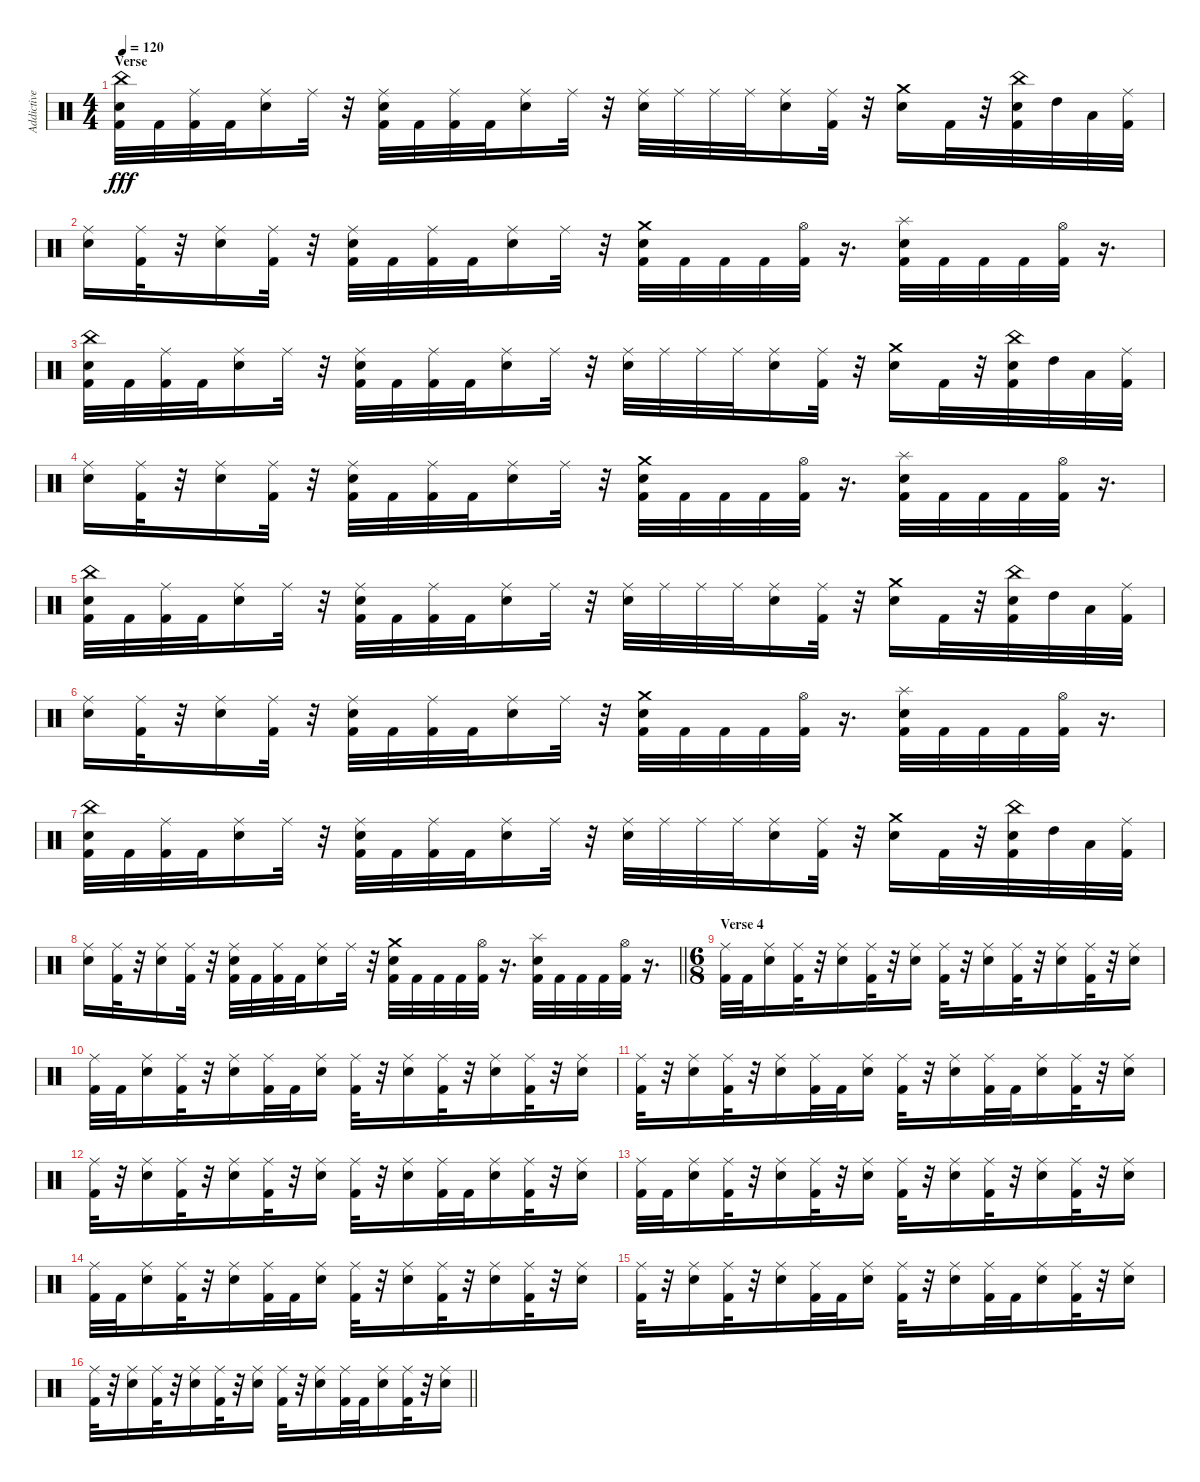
\track ("Addictive Drums 07" "Addictive ") {instrument percussion}
\staff {score}
\articulation defaults
\ts (4 4)
\section ("" "Verse")
\tempo 120
\clef neutral
\ks c
("Kick (hit) 2" "Snare (hit) 2" "China (hit)").32{dy fff} "Kick (hit) 2".32 ("Kick (hit) 2" "Ride (middle)").32 "Kick (hit) 2".32 ("Snare (hit) 2" "Ride (middle)").16 "Ride (middle)".32 r.32 ("Kick (hit) 2" "Snare (hit) 2" "Ride (middle)").32 "Kick (hit) 2".32 ("Kick (hit) 2" "Ride (middle)").32 "Kick (hit) 2".32 ("Snare (hit) 2" "Ride (middle)").16 "Ride (middle)".32 r.32 ("Snare (hit) 2" "Ride (middle)").32 "Ride (middle)".32 "Ride (middle)".32 "Ride (middle)".32 ("Snare (hit) 2" "Ride (middle)").16 ("Kick (hit) 2" "Ride (middle)").32 r.32 ("Snare (hit) 2" "Crash medium (hit)").16 "Kick (hit) 2".32 r.32 ("Kick (hit) 2" "Snare (hit) 2" "China (hit)").32 "High Tom (hit)".32 "Low Tom (hit)".32 ("Kick (hit) 2" "Ride (middle)").32 |
("Snare (hit) 2" "Ride (middle)").16 ("Kick (hit) 2" "Ride (middle)").32 r.32 ("Snare (hit) 2" "Ride (middle)").16 ("Kick (hit) 2" "Ride (middle)").32 r.32 ("Kick (hit) 2" "Snare (hit) 2" "Ride (middle)").32 "Kick (hit) 2".32 ("Kick (hit) 2" "Ride (middle)").32 "Kick (hit) 2".32 ("Snare (hit) 2" "Ride (middle)").16 "Ride (middle)".32 r.32 ("Kick (hit) 2" "Snare (hit) 2" "Crash medium (hit)").32 "Kick (hit) 2".32 "Kick (hit) 2".32 "Kick (hit) 2".32 ("Kick (hit) 2" "Hi-Hat (open)").32 r.16{d} ("Kick (hit) 2" "Snare (hit) 2" "Splash (hit)").32 "Kick (hit) 2".32 "Kick (hit) 2".32 "Kick (hit) 2".32 ("Kick (hit) 2" "Hi-Hat (open)").32 r.16{d} |
("Kick (hit) 2" "Snare (hit) 2" "China (hit)").32 "Kick (hit) 2".32 ("Kick (hit) 2" "Ride (middle)").32 "Kick (hit) 2".32 ("Snare (hit) 2" "Ride (middle)").16 "Ride (middle)".32 r.32 ("Kick (hit) 2" "Snare (hit) 2" "Ride (middle)").32 "Kick (hit) 2".32 ("Kick (hit) 2" "Ride (middle)").32 "Kick (hit) 2".32 ("Snare (hit) 2" "Ride (middle)").16 "Ride (middle)".32 r.32 ("Snare (hit) 2" "Ride (middle)").32 "Ride (middle)".32 "Ride (middle)".32 "Ride (middle)".32 ("Snare (hit) 2" "Ride (middle)").16 ("Kick (hit) 2" "Ride (middle)").32 r.32 ("Snare (hit) 2" "Crash medium (hit)").16 "Kick (hit) 2".32 r.32 ("Kick (hit) 2" "Snare (hit) 2" "China (hit)").32 "High Tom (hit)".32 "Low Tom (hit)".32 ("Kick (hit) 2" "Ride (middle)").32 |
("Snare (hit) 2" "Ride (middle)").16 ("Kick (hit) 2" "Ride (middle)").32 r.32 ("Snare (hit) 2" "Ride (middle)").16 ("Kick (hit) 2" "Ride (middle)").32 r.32 ("Kick (hit) 2" "Snare (hit) 2" "Ride (middle)").32 "Kick (hit) 2".32 ("Kick (hit) 2" "Ride (middle)").32 "Kick (hit) 2".32 ("Snare (hit) 2" "Ride (middle)").16 "Ride (middle)".32 r.32 ("Kick (hit) 2" "Snare (hit) 2" "Crash medium (hit)").32 "Kick (hit) 2".32 "Kick (hit) 2".32 "Kick (hit) 2".32 ("Kick (hit) 2" "Hi-Hat (open)").32 r.16{d} ("Kick (hit) 2" "Snare (hit) 2" "Splash (hit)").32 "Kick (hit) 2".32 "Kick (hit) 2".32 "Kick (hit) 2".32 ("Kick (hit) 2" "Hi-Hat (open)").32 r.16{d} |
("Kick (hit) 2" "Snare (hit) 2" "China (hit)").32 "Kick (hit) 2".32 ("Kick (hit) 2" "Ride (middle)").32 "Kick (hit) 2".32 ("Snare (hit) 2" "Ride (middle)").16 "Ride (middle)".32 r.32 ("Kick (hit) 2" "Snare (hit) 2" "Ride (middle)").32 "Kick (hit) 2".32 ("Kick (hit) 2" "Ride (middle)").32 "Kick (hit) 2".32 ("Snare (hit) 2" "Ride (middle)").16 "Ride (middle)".32 r.32 ("Snare (hit) 2" "Ride (middle)").32 "Ride (middle)".32 "Ride (middle)".32 "Ride (middle)".32 ("Snare (hit) 2" "Ride (middle)").16 ("Kick (hit) 2" "Ride (middle)").32 r.32 ("Snare (hit) 2" "Crash medium (hit)").16 "Kick (hit) 2".32 r.32 ("Kick (hit) 2" "Snare (hit) 2" "China (hit)").32 "High Tom (hit)".32 "Low Tom (hit)".32 ("Kick (hit) 2" "Ride (middle)").32 |
("Snare (hit) 2" "Ride (middle)").16 ("Kick (hit) 2" "Ride (middle)").32 r.32 ("Snare (hit) 2" "Ride (middle)").16 ("Kick (hit) 2" "Ride (middle)").32 r.32 ("Kick (hit) 2" "Snare (hit) 2" "Ride (middle)").32 "Kick (hit) 2".32 ("Kick (hit) 2" "Ride (middle)").32 "Kick (hit) 2".32 ("Snare (hit) 2" "Ride (middle)").16 "Ride (middle)".32 r.32 ("Kick (hit) 2" "Snare (hit) 2" "Crash medium (hit)").32 "Kick (hit) 2".32 "Kick (hit) 2".32 "Kick (hit) 2".32 ("Kick (hit) 2" "Hi-Hat (open)").32 r.16{d} ("Kick (hit) 2" "Snare (hit) 2" "Splash (hit)").32 "Kick (hit) 2".32 "Kick (hit) 2".32 "Kick (hit) 2".32 ("Kick (hit) 2" "Hi-Hat (open)").32 r.16{d} |
("Kick (hit) 2" "Snare (hit) 2" "China (hit)").32 "Kick (hit) 2".32 ("Kick (hit) 2" "Ride (middle)").32 "Kick (hit) 2".32 ("Snare (hit) 2" "Ride (middle)").16 "Ride (middle)".32 r.32 ("Kick (hit) 2" "Snare (hit) 2" "Ride (middle)").32 "Kick (hit) 2".32 ("Kick (hit) 2" "Ride (middle)").32 "Kick (hit) 2".32 ("Snare (hit) 2" "Ride (middle)").16 "Ride (middle)".32 r.32 ("Snare (hit) 2" "Ride (middle)").32 "Ride (middle)".32 "Ride (middle)".32 "Ride (middle)".32 ("Snare (hit) 2" "Ride (middle)").16 ("Kick (hit) 2" "Ride (middle)").32 r.32 ("Snare (hit) 2" "Crash medium (hit)").16 "Kick (hit) 2".32 r.32 ("Kick (hit) 2" "Snare (hit) 2" "China (hit)").32 "High Tom (hit)".32 "Low Tom (hit)".32 ("Kick (hit) 2" "Ride (middle)").32 |
\barLineRight lightlight
("Snare (hit) 2" "Ride (middle)").16 ("Kick (hit) 2" "Ride (middle)").32 r.32 ("Snare (hit) 2" "Ride (middle)").16 ("Kick (hit) 2" "Ride (middle)").32 r.32 ("Kick (hit) 2" "Snare (hit) 2" "Ride (middle)").32 "Kick (hit) 2".32 ("Kick (hit) 2" "Ride (middle)").32 "Kick (hit) 2".32 ("Snare (hit) 2" "Ride (middle)").16 "Ride (middle)".32 r.32 ("Kick (hit) 2" "Snare (hit) 2" "Crash medium (hit)").32 "Kick (hit) 2".32 "Kick (hit) 2".32 "Kick (hit) 2".32 ("Kick (hit) 2" "Hi-Hat (open)").32 r.16{d} ("Kick (hit) 2" "Snare (hit) 2" "Splash (hit)").32 "Kick (hit) 2".32 "Kick (hit) 2".32 "Kick (hit) 2".32 ("Kick (hit) 2" "Hi-Hat (open)").32 r.16{d} |
\ts (6 8)
\section ("" "Verse 4")
("Kick (hit) 2" "Ride (middle)").32 "Kick (hit) 2".32 ("Snare (hit) 2" "Ride (middle)").16 ("Kick (hit) 2" "Ride (middle)").32 r.32 ("Snare (hit) 2" "Ride (middle)").16 ("Kick (hit) 2" "Ride (middle)").32 r.32 ("Snare (hit) 2" "Ride (middle)").16 ("Kick (hit) 2" "Ride (middle)").32 r.32 ("Snare (hit) 2" "Ride (middle)").16 ("Kick (hit) 2" "Ride (middle)").32 r.32 ("Snare (hit) 2" "Ride (middle)").16 ("Kick (hit) 2" "Ride (middle)").32 r.32 ("Snare (hit) 2" "Ride (middle)").16 |
("Kick (hit) 2" "Ride (middle)").32 "Kick (hit) 2".32 ("Snare (hit) 2" "Ride (middle)").16 ("Kick (hit) 2" "Ride (middle)").32 r.32 ("Snare (hit) 2" "Ride (middle)").16 ("Kick (hit) 2" "Ride (middle)").32 "Kick (hit) 2".32 ("Snare (hit) 2" "Ride (middle)").16 ("Kick (hit) 2" "Ride (middle)").32 r.32 ("Snare (hit) 2" "Ride (middle)").16 ("Kick (hit) 2" "Ride (middle)").32 r.32 ("Snare (hit) 2" "Ride (middle)").16 ("Kick (hit) 2" "Ride (middle)").32 r.32 ("Snare (hit) 2" "Ride (middle)").16 |
("Kick (hit) 2" "Ride (middle)").32 r.32 ("Snare (hit) 2" "Ride (middle)").16 ("Kick (hit) 2" "Ride (middle)").32 r.32 ("Snare (hit) 2" "Ride (middle)").16 ("Kick (hit) 2" "Ride (middle)").32 "Kick (hit) 2".32 ("Snare (hit) 2" "Ride (middle)").16 ("Kick (hit) 2" "Ride (middle)").32 r.32 ("Snare (hit) 2" "Ride (middle)").16 ("Kick (hit) 2" "Ride (middle)").32 "Kick (hit) 2".32 ("Snare (hit) 2" "Ride (middle)").16 ("Kick (hit) 2" "Ride (middle)").32 r.32 ("Snare (hit) 2" "Ride (middle)").16 |
("Kick (hit) 2" "Ride (middle)").32 r.32 ("Snare (hit) 2" "Ride (middle)").16 ("Kick (hit) 2" "Ride (middle)").32 r.32 ("Snare (hit) 2" "Ride (middle)").16 ("Kick (hit) 2" "Ride (middle)").32 r.32 ("Snare (hit) 2" "Ride (middle)").16 ("Kick (hit) 2" "Ride (middle)").32 r.32 ("Snare (hit) 2" "Ride (middle)").16 ("Kick (hit) 2" "Ride (middle)").32 "Kick (hit) 2".32 ("Snare (hit) 2" "Ride (middle)").16 ("Kick (hit) 2" "Ride (middle)").32 r.32 ("Snare (hit) 2" "Ride (middle)").16 |
("Kick (hit) 2" "Ride (middle)").32 "Kick (hit) 2".32 ("Snare (hit) 2" "Ride (middle)").16 ("Kick (hit) 2" "Ride (middle)").32 r.32 ("Snare (hit) 2" "Ride (middle)").16 ("Kick (hit) 2" "Ride (middle)").32 r.32 ("Snare (hit) 2" "Ride (middle)").16 ("Kick (hit) 2" "Ride (middle)").32 r.32 ("Snare (hit) 2" "Ride (middle)").16 ("Kick (hit) 2" "Ride (middle)").32 r.32 ("Snare (hit) 2" "Ride (middle)").16 ("Kick (hit) 2" "Ride (middle)").32 r.32 ("Snare (hit) 2" "Ride (middle)").16 |
("Kick (hit) 2" "Ride (middle)").32 "Kick (hit) 2".32 ("Snare (hit) 2" "Ride (middle)").16 ("Kick (hit) 2" "Ride (middle)").32 r.32 ("Snare (hit) 2" "Ride (middle)").16 ("Kick (hit) 2" "Ride (middle)").32 "Kick (hit) 2".32 ("Snare (hit) 2" "Ride (middle)").16 ("Kick (hit) 2" "Ride (middle)").32 r.32 ("Snare (hit) 2" "Ride (middle)").16 ("Kick (hit) 2" "Ride (middle)").32 r.32 ("Snare (hit) 2" "Ride (middle)").16 ("Kick (hit) 2" "Ride (middle)").32 r.32 ("Snare (hit) 2" "Ride (middle)").16 |
("Kick (hit) 2" "Ride (middle)").32 r.32 ("Snare (hit) 2" "Ride (middle)").16 ("Kick (hit) 2" "Ride (middle)").32 r.32 ("Snare (hit) 2" "Ride (middle)").16 ("Kick (hit) 2" "Ride (middle)").32 "Kick (hit) 2".32 ("Snare (hit) 2" "Ride (middle)").16 ("Kick (hit) 2" "Ride (middle)").32 r.32 ("Snare (hit) 2" "Ride (middle)").16 ("Kick (hit) 2" "Ride (middle)").32 "Kick (hit) 2".32 ("Snare (hit) 2" "Ride (middle)").16 ("Kick (hit) 2" "Ride (middle)").32 r.32 ("Snare (hit) 2" "Ride (middle)").16 |
\barLineRight lightlight
("Kick (hit) 2" "Ride (middle)").32 r.32 ("Snare (hit) 2" "Ride (middle)").16 ("Kick (hit) 2" "Ride (middle)").32 r.32 ("Snare (hit) 2" "Ride (middle)").16 ("Kick (hit) 2" "Ride (middle)").32 r.32 ("Snare (hit) 2" "Ride (middle)").16 ("Kick (hit) 2" "Ride (middle)").32 r.32 ("Snare (hit) 2" "Ride (middle)").16 ("Kick (hit) 2" "Ride (middle)").32 "Kick (hit) 2".32 ("Snare (hit) 2" "Ride (middle)").16 ("Kick (hit) 2" "Ride (middle)").32 r.32 ("Snare (hit) 2" "Ride (middle)").16
